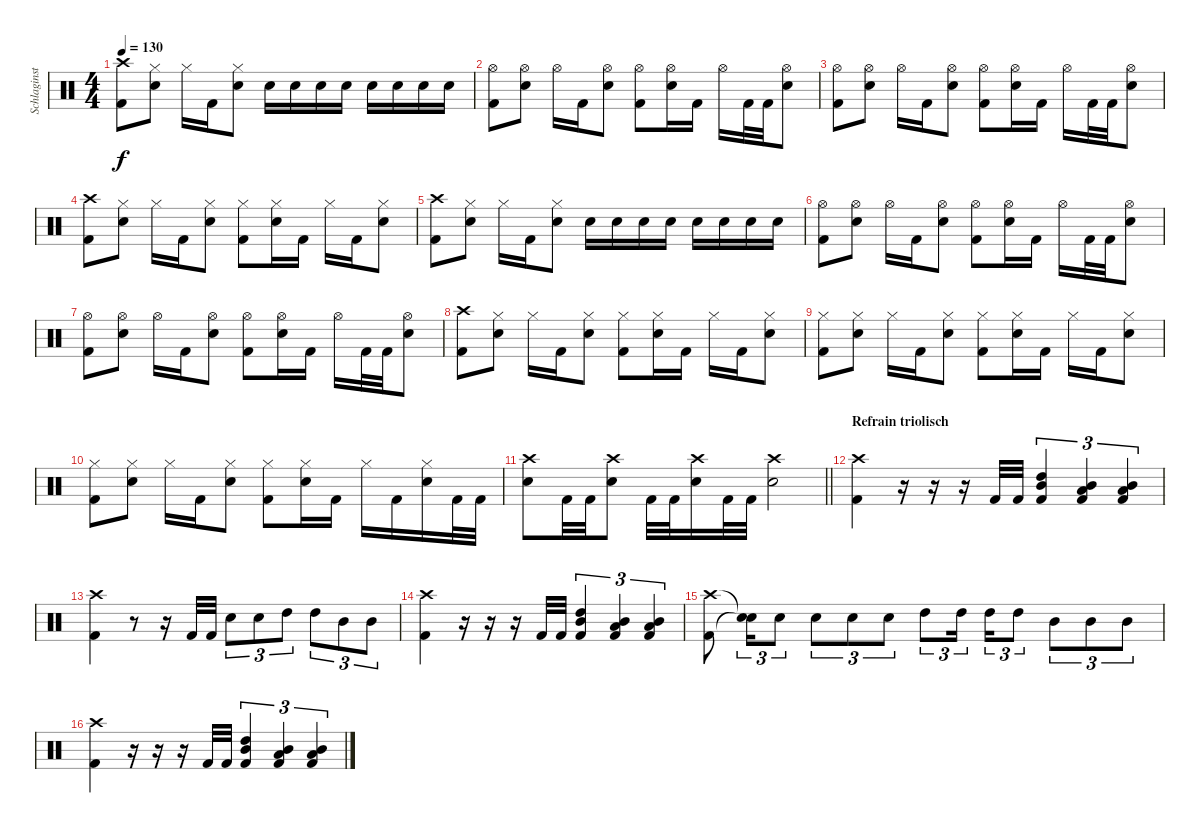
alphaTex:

\track ("Schlaginstrumente - Auswahl" "Schlaginst") {instrument percussion}
\staff {score}
\articulation defaults
\ts (4 4)
\tempo 130
\clef neutral
\ks c
("Crash high (hit)" "Kick (hit) 2").8{dy f} ("Hi-Hat (closed)" "Snare (hit) 2").8 "Hi-Hat (closed)".16 "Kick (hit) 2".16 ("Hi-Hat (closed)" "Snare (hit) 2").8 "Snare (hit) 2".16 "Snare (hit) 2".16 "Snare (hit) 2".16 "Snare (hit) 2".16 "Snare (hit) 2".16 "Snare (hit) 2".16 "Snare (hit) 2".16 "Snare (hit) 2".16 |
("Hi-Hat (open)" "Kick (hit) 2").8 ("Hi-Hat (open)" "Snare (hit) 2").8 "Hi-Hat (open)".16 "Kick (hit) 2".16 ("Hi-Hat (open)" "Snare (hit) 2").8 ("Hi-Hat (open)" "Kick (hit) 2").8 ("Hi-Hat (open)" "Snare (hit) 2").16 "Kick (hit) 2".16 "Hi-Hat (open)".16 "Kick (hit) 2".32 "Kick (hit) 2".32 ("Hi-Hat (open)" "Snare (hit) 2").8 |
("Hi-Hat (open)" "Kick (hit) 2").8 ("Hi-Hat (open)" "Snare (hit) 2").8 "Hi-Hat (open)".16 "Kick (hit) 2".16 ("Hi-Hat (open)" "Snare (hit) 2").8 ("Hi-Hat (open)" "Kick (hit) 2").8 ("Hi-Hat (open)" "Snare (hit) 2").16 "Kick (hit) 2".16 "Hi-Hat (open)".16 "Kick (hit) 2".32 "Kick (hit) 2".32 ("Hi-Hat (open)" "Snare (hit) 2").8 |
("Crash high (hit)" "Kick (hit) 2").8 ("Hi-Hat (closed)" "Snare (hit) 2").8 "Hi-Hat (closed)".16 "Kick (hit) 2".16 ("Hi-Hat (closed)" "Snare (hit) 2").8 ("Hi-Hat (closed)" "Kick (hit) 2").8 ("Hi-Hat (closed)" "Snare (hit) 2").16 "Kick (hit) 2".16 "Hi-Hat (closed)".16 "Kick (hit) 2".16 ("Hi-Hat (closed)" "Snare (hit) 2").8 |
("Crash high (hit)" "Kick (hit) 2").8 ("Hi-Hat (closed)" "Snare (hit) 2").8 "Hi-Hat (closed)".16 "Kick (hit) 2".16 ("Hi-Hat (closed)" "Snare (hit) 2").8 "Snare (hit) 2".16 "Snare (hit) 2".16 "Snare (hit) 2".16 "Snare (hit) 2".16 "Snare (hit) 2".16 "Snare (hit) 2".16 "Snare (hit) 2".16 "Snare (hit) 2".16 |
("Hi-Hat (open)" "Kick (hit) 2").8 ("Hi-Hat (open)" "Snare (hit) 2").8 "Hi-Hat (open)".16 "Kick (hit) 2".16 ("Hi-Hat (open)" "Snare (hit) 2").8 ("Hi-Hat (open)" "Kick (hit) 2").8 ("Hi-Hat (open)" "Snare (hit) 2").16 "Kick (hit) 2".16 "Hi-Hat (open)".16 "Kick (hit) 2".32 "Kick (hit) 2".32 ("Hi-Hat (open)" "Snare (hit) 2").8 |
("Hi-Hat (open)" "Kick (hit) 2").8 ("Hi-Hat (open)" "Snare (hit) 2").8 "Hi-Hat (open)".16 "Kick (hit) 2".16 ("Hi-Hat (open)" "Snare (hit) 2").8 ("Hi-Hat (open)" "Kick (hit) 2").8 ("Hi-Hat (open)" "Snare (hit) 2").16 "Kick (hit) 2".16 "Hi-Hat (open)".16 "Kick (hit) 2".32 "Kick (hit) 2".32 ("Hi-Hat (open)" "Snare (hit) 2").8 |
("Crash high (hit)" "Kick (hit) 2").8 ("Hi-Hat (closed)" "Snare (hit) 2").8 "Hi-Hat (closed)".16 "Kick (hit) 2".16 ("Hi-Hat (closed)" "Snare (hit) 2").8 ("Hi-Hat (closed)" "Kick (hit) 2").8 ("Hi-Hat (closed)" "Snare (hit) 2").16 "Kick (hit) 2".16 "Hi-Hat (closed)".16 "Kick (hit) 2".16 ("Hi-Hat (closed)" "Snare (hit) 2").8 |
("Hi-Hat (closed)" "Kick (hit) 2").8 ("Hi-Hat (closed)" "Snare (hit) 2").8 "Hi-Hat (closed)".16 "Kick (hit) 2".16 ("Hi-Hat (closed)" "Snare (hit) 2").8 ("Hi-Hat (closed)" "Kick (hit) 2").8 ("Hi-Hat (closed)" "Snare (hit) 2").16 "Kick (hit) 2".16 "Hi-Hat (closed)".16 "Kick (hit) 2".16 ("Hi-Hat (closed)" "Snare (hit) 2").8 |
("Hi-Hat (closed)" "Kick (hit) 2").8 ("Hi-Hat (closed)" "Snare (hit) 2").8 "Hi-Hat (closed)".16 "Kick (hit) 2".16 ("Hi-Hat (closed)" "Snare (hit) 2").8 ("Hi-Hat (closed)" "Kick (hit) 2").8 ("Hi-Hat (closed)" "Snare (hit) 2").16 "Kick (hit) 2".16 "Hi-Hat (closed)".16 "Kick (hit) 2".16 ("Hi-Hat (closed)" "Snare (hit) 2").16 "Kick (hit) 2".32 "Kick (hit) 2".32 |
\barLineRight lightlight
("Crash high (hit)" "Snare (hit) 2").8 "Kick (hit) 2".32 "Kick (hit) 2".32 ("Crash high (hit)" "Snare (hit) 2").8 "Kick (hit) 2".32 "Kick (hit) 2".32 ("Crash high (hit)" "Snare (hit) 2").16 "Kick (hit) 2".32 "Kick (hit) 2".32 ("Crash high (hit)" "Snare (hit) 2").2 |
\section ("" "Refrain triolisch")
("Crash high (hit)" "Kick (hit) 2").4 r.16 r.16 r.16 "Kick (hit) 2".32 "Kick (hit) 2".32 ("High Tom (hit)" "Mid Tom (hit)" "Kick (hit) 2").4{tu (3 2)} ("Mid Tom (hit)" "Low Tom (hit)" "Kick (hit) 2").4{tu (3 2)} ("Mid Tom (hit)" "Low Tom (hit)" "Kick (hit) 2").4{tu (3 2)} |
("Crash high (hit)" "Kick (hit) 2").4 r.8 r.16 "Kick (hit) 2".32 "Kick (hit) 2".32 "Snare (hit) 2".8{tu (3 2)} "Snare (hit) 2".8{tu (3 2)} "High Tom (hit)".8{tu (3 2)} "High Tom (hit)".8{tu (3 2)} "Mid Tom (hit)".8{tu (3 2)} "Mid Tom (hit)".8{tu (3 2)} |
("Crash high (hit)" "Kick (hit) 2").4 r.16 r.16 r.16 "Kick (hit) 2".32 "Kick (hit) 2".32 ("High Tom (hit)" "Mid Tom (hit)" "Kick (hit) 2").4{tu (3 2)} ("Mid Tom (hit)" "Low Tom (hit)" "Kick (hit) 2").4{tu (3 2)} ("Mid Tom (hit)" "Low Tom (hit)" "Kick (hit) 2").4{tu (3 2)} |
("Crash high (hit)" "Kick (hit) 2").8 ("Snare (hit)"{t} "Snare (hit)"{t}).16{tu (3 2)} "Snare (hit) 2".8{tu (3 2)} "Snare (hit) 2".8{tu (3 2)} "Snare (hit) 2".8{tu (3 2)} "Snare (hit) 2".8{tu (3 2)} "High Tom (hit)".8{tu (3 2)} "High Tom (hit)".16{tu (3 2) beam splitsecondary} "High Tom (hit)".16{tu (3 2)} "High Tom (hit)".8{tu (3 2)} "Mid Tom (hit)".8{tu (3 2)} "Mid Tom (hit)".8{tu (3 2)} "Mid Tom (hit)".8{tu (3 2)} |
("Crash high (hit)" "Kick (hit) 2").4 r.16 r.16 r.16 "Kick (hit) 2".32 "Kick (hit) 2".32 ("High Tom (hit)" "Mid Tom (hit)" "Kick (hit) 2").4{tu (3 2)} ("Mid Tom (hit)" "Low Tom (hit)" "Kick (hit) 2").4{tu (3 2)} ("Mid Tom (hit)" "Low Tom (hit)" "Kick (hit) 2").4{tu (3 2)}
